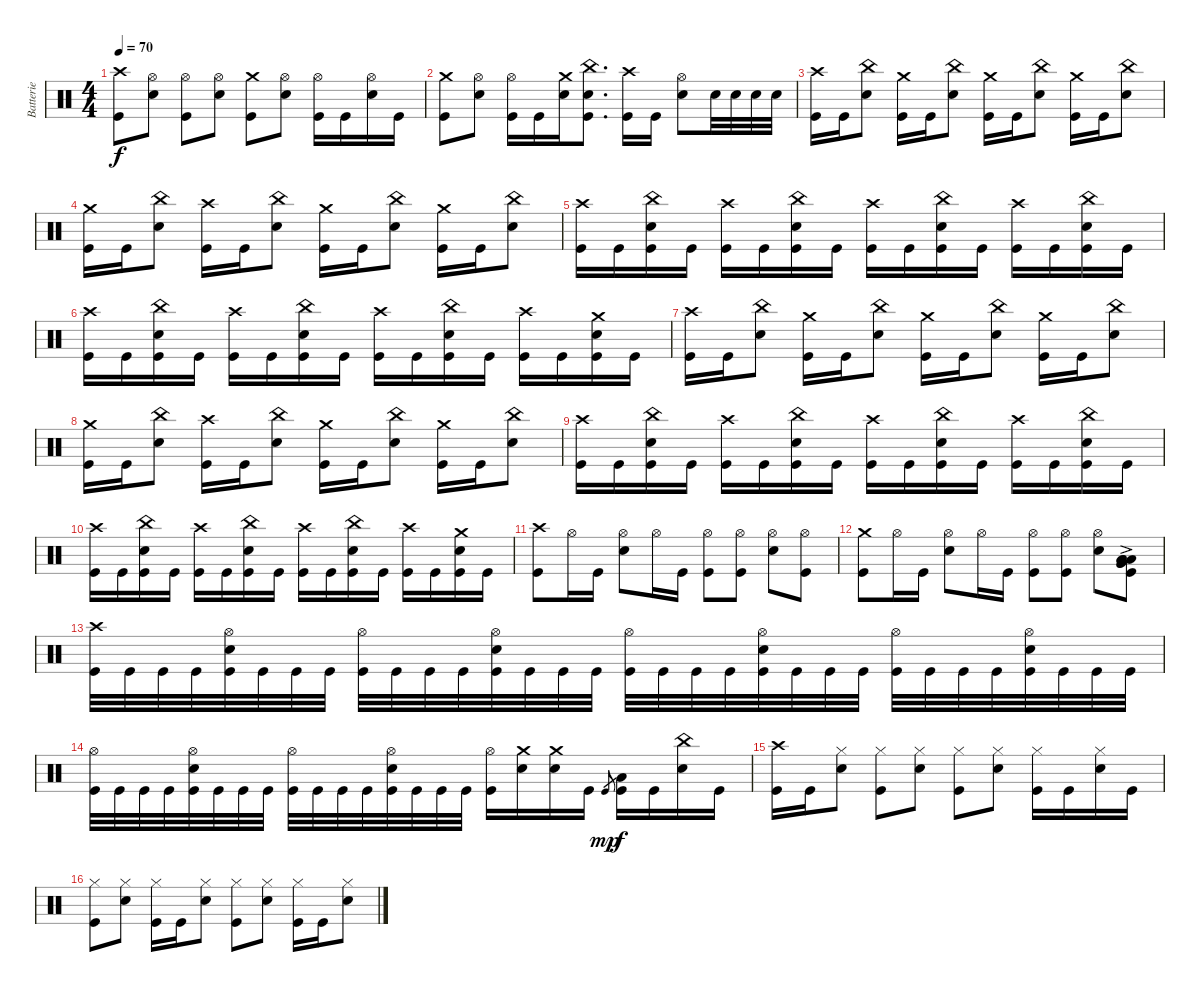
\track ("Batterie" "Batterie") {instrument percussion}
\staff {score}
\articulation defaults
\ts (4 4)
\tempo 70
\clef neutral
\ks c
("Kick (hit)" "Crash high (hit)").8{dy f} ("Hi-Hat (open)" "Snare (hit) 2").8 ("Kick (hit)" "Hi-Hat (open)").8 ("Snare (hit) 2" "Hi-Hat (open)").8 ("Kick (hit)" "Crash medium (hit)").8 ("Snare (hit) 2" "Hi-Hat (open)").8 ("Kick (hit)" "Hi-Hat (open)").16 "Kick (hit)".16 ("Snare (hit) 2" "Hi-Hat (open)").16 "Kick (hit)".16 |
("Kick (hit)" "Crash medium (hit)").8 ("Hi-Hat (open)" "Snare (hit) 2").8 ("Kick (hit)" "Hi-Hat (open)").16 "Kick (hit)".16 ("Snare (hit) 2" "Crash medium (hit)").16 ("Kick (hit)" "China (hit)" "Snare (hit) 2").8{d} ("Kick (hit)" "Crash high (hit)").16 "Kick (hit)".16 ("Snare (hit) 2" "Hi-Hat (open)").8 "Snare (hit) 2".32 "Snare (hit) 2".32 "Snare (hit) 2".32 "Snare (hit) 2".32 |
("Kick (hit)" "Crash high (hit)").16 "Kick (hit)".16 ("Snare (hit) 2" "China (hit)").8 ("Kick (hit)" "Crash medium (hit)").16 "Kick (hit)".16 ("Snare (hit) 2" "China (hit)").8 ("Kick (hit)" "Crash medium (hit)").16 "Kick (hit)".16 ("Snare (hit) 2" "China (hit)").8 ("Kick (hit)" "Crash medium (hit)").16 "Kick (hit)".16 ("Snare (hit) 2" "China (hit)").8 |
("Kick (hit)" "Crash medium (hit)").16 "Kick (hit)".16 ("Snare (hit) 2" "China (hit)").8 ("Kick (hit)" "Crash high (hit)").16 "Kick (hit)".16 ("Snare (hit) 2" "China (hit)").8 ("Kick (hit)" "Crash medium (hit)").16 "Kick (hit)".16 ("Snare (hit) 2" "China (hit)").8 ("Kick (hit)" "Crash medium (hit)").16 "Kick (hit)".16 ("Snare (hit) 2" "China (hit)").8 |
("Kick (hit)" "Crash high (hit)").16 "Kick (hit)".16 ("Snare (hit) 2" "China (hit)" "Kick (hit)").16 "Kick (hit)".16 ("Kick (hit)" "Crash high (hit)").16 "Kick (hit)".16 ("Snare (hit) 2" "China (hit)" "Kick (hit)").16 "Kick (hit)".16 ("Kick (hit)" "Crash high (hit)").16 "Kick (hit)".16 ("Snare (hit) 2" "China (hit)" "Kick (hit)").16 "Kick (hit)".16 ("Kick (hit)" "Crash high (hit)").16 "Kick (hit)".16 ("Snare (hit) 2" "China (hit)" "Kick (hit)").16 "Kick (hit)".16 |
("Kick (hit)" "Crash high (hit)").16 "Kick (hit)".16 ("Snare (hit) 2" "China (hit)" "Kick (hit)").16 "Kick (hit)".16 ("Kick (hit)" "Crash high (hit)").16 "Kick (hit)".16 ("Snare (hit) 2" "China (hit)" "Kick (hit)").16 "Kick (hit)".16 ("Kick (hit)" "Crash high (hit)").16 "Kick (hit)".16 ("Snare (hit) 2" "China (hit)" "Kick (hit)").16 "Kick (hit)".16 ("Kick (hit)" "Crash high (hit)").16 "Kick (hit)".16 ("Snare (hit) 2" "Crash medium (hit)" "Kick (hit)").16 "Kick (hit)".16 |
("Kick (hit)" "Crash high (hit)").16 "Kick (hit)".16 ("Snare (hit) 2" "China (hit)").8 ("Kick (hit)" "Crash medium (hit)").16 "Kick (hit)".16 ("Snare (hit) 2" "China (hit)").8 ("Kick (hit)" "Crash medium (hit)").16 "Kick (hit)".16 ("Snare (hit) 2" "China (hit)").8 ("Kick (hit)" "Crash medium (hit)").16 "Kick (hit)".16 ("Snare (hit) 2" "China (hit)").8 |
("Kick (hit)" "Crash medium (hit)").16 "Kick (hit)".16 ("Snare (hit) 2" "China (hit)").8 ("Kick (hit)" "Crash high (hit)").16 "Kick (hit)".16 ("Snare (hit) 2" "China (hit)").8 ("Kick (hit)" "Crash medium (hit)").16 "Kick (hit)".16 ("Snare (hit) 2" "China (hit)").8 ("Kick (hit)" "Crash medium (hit)").16 "Kick (hit)".16 ("Snare (hit) 2" "China (hit)").8 |
("Kick (hit)" "Crash high (hit)").16 "Kick (hit)".16 ("Snare (hit) 2" "China (hit)" "Kick (hit)").16 "Kick (hit)".16 ("Kick (hit)" "Crash high (hit)").16 "Kick (hit)".16 ("Snare (hit) 2" "China (hit)" "Kick (hit)").16 "Kick (hit)".16 ("Kick (hit)" "Crash high (hit)").16 "Kick (hit)".16 ("Snare (hit) 2" "China (hit)" "Kick (hit)").16 "Kick (hit)".16 ("Kick (hit)" "Crash high (hit)").16 "Kick (hit)".16 ("Snare (hit) 2" "China (hit)" "Kick (hit)").16 "Kick (hit)".16 |
("Kick (hit)" "Crash high (hit)").16 "Kick (hit)".16 ("Snare (hit) 2" "China (hit)" "Kick (hit)").16 "Kick (hit)".16 ("Kick (hit)" "Crash high (hit)").16 "Kick (hit)".16 ("Snare (hit) 2" "China (hit)" "Kick (hit)").16 "Kick (hit)".16 ("Kick (hit)" "Crash high (hit)").16 "Kick (hit)".16 ("Snare (hit) 2" "China (hit)" "Kick (hit)").16 "Kick (hit)".16 ("Kick (hit)" "Crash high (hit)").16 "Kick (hit)".16 ("Snare (hit) 2" "Crash medium (hit)" "Kick (hit)").16 "Kick (hit)".16 |
("Kick (hit)" "Crash high (hit)").8 "Hi-Hat (open)".16 "Kick (hit)".16 ("Hi-Hat (open)" "Snare (hit) 2").8 "Hi-Hat (open)".16 "Kick (hit)".16 ("Kick (hit)" "Hi-Hat (open)").8 ("Hi-Hat (open)" "Kick (hit)").8 ("Hi-Hat (open)" "Snare (hit) 2").8 ("Hi-Hat (open)" "Kick (hit)").8 |
("Kick (hit)" "Crash medium (hit)").8 "Hi-Hat (open)".16 "Kick (hit)".16 ("Hi-Hat (open)" "Snare (hit) 2").8 "Hi-Hat (open)".16 "Kick (hit)".16 ("Kick (hit)" "Hi-Hat (open)").8 ("Hi-Hat (open)" "Kick (hit)").8 ("Hi-Hat (open)" "Snare (hit) 2").8 ("Low Floor Tom (hit)"{ac} "Very Low Tom (hit)"{ac} "Low Floor Tom (hit)"{ac} "Very Low Tom (hit)"{ac} "Kick (hit)"{ac} "Low Tom (hit)"{ac}).8 |
("Crash high (hit)" "Kick (hit)").32 "Kick (hit)".32 "Kick (hit)".32 "Kick (hit)".32 ("Kick (hit)" "Snare (hit) 2" "Hi-Hat (open)").32 "Kick (hit)".32 "Kick (hit)".32 "Kick (hit)".32 ("Hi-Hat (open)" "Kick (hit)").32 "Kick (hit)".32 "Kick (hit)".32 "Kick (hit)".32 ("Kick (hit)" "Snare (hit) 2" "Hi-Hat (open)").32 "Kick (hit)".32 "Kick (hit)".32 "Kick (hit)".32 ("Hi-Hat (open)" "Kick (hit)").32 "Kick (hit)".32 "Kick (hit)".32 "Kick (hit)".32 ("Kick (hit)" "Snare (hit) 2" "Hi-Hat (open)").32 "Kick (hit)".32 "Kick (hit)".32 "Kick (hit)".32 ("Hi-Hat (open)" "Kick (hit)").32 "Kick (hit)".32 "Kick (hit)".32 "Kick (hit)".32 ("Kick (hit)" "Snare (hit) 2" "Hi-Hat (open)").32 "Kick (hit)".32 "Kick (hit)".32 "Kick (hit)".32 |
("Hi-Hat (open)" "Kick (hit)").32 "Kick (hit)".32 "Kick (hit)".32 "Kick (hit)".32 ("Kick (hit)" "Snare (hit) 2" "Hi-Hat (open)").32 "Kick (hit)".32 "Kick (hit)".32 "Kick (hit)".32 ("Hi-Hat (open)" "Kick (hit)").32 "Kick (hit)".32 "Kick (hit)".32 "Kick (hit)".32 ("Kick (hit)" "Snare (hit) 2" "Hi-Hat (open)").32 "Kick (hit)".32 "Kick (hit)".32 "Kick (hit)".32 ("Kick (hit)" "Hi-Hat (open)").16 ("Snare (hit) 2" "Crash medium (hit)").16 ("Snare (hit) 2" "Crash medium (hit)").16 "Kick (hit)".16 "Kick (hit)".8{gr dy mp} ("Low Floor Tom (hit)" "Kick (hit)").16{dy f} "Kick (hit)".16 ("Snare (hit) 2" "China (hit)").16 "Kick (hit)".16 |
("Kick (hit)" "Crash high (hit)").16 "Kick (hit)".16 ("Hi-Hat (closed)" "Snare (hit) 2").8 ("Kick (hit)" "Hi-Hat (closed)").8 ("Snare (hit) 2" "Hi-Hat (closed)").8 ("Kick (hit)" "Hi-Hat (closed)").8 ("Snare (hit) 2" "Hi-Hat (closed)").8 ("Kick (hit)" "Hi-Hat (closed)").16 "Kick (hit)".16 ("Snare (hit) 2" "Hi-Hat (closed)").16 "Kick (hit)".16 |
("Kick (hit)" "Hi-Hat (closed)").8 ("Hi-Hat (closed)" "Snare (hit) 2").8 ("Kick (hit)" "Hi-Hat (closed)").16 "Kick (hit)".16 ("Snare (hit) 2" "Hi-Hat (closed)").8 ("Kick (hit)" "Hi-Hat (closed)").8 ("Snare (hit) 2" "Hi-Hat (closed)").8 ("Kick (hit)" "Hi-Hat (closed)").16 "Kick (hit)".16 ("Snare (hit) 2" "Hi-Hat (closed)").8
